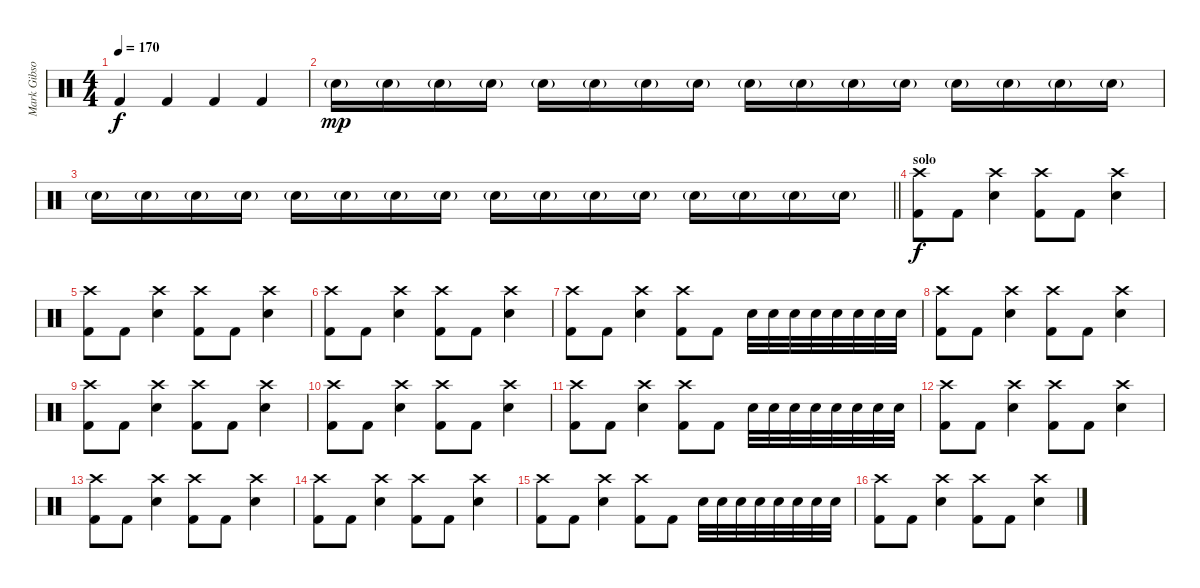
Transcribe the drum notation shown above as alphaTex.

\track ("Mark Gibson" "Mark Gibso") {instrument percussion}
\staff {score}
\articulation defaults
\ts (4 4)
\tempo 170
\clef neutral
\ks c "Kick (hit) 2".4{dy f} "Kick (hit) 2".4 "Kick (hit) 2".4 "Kick (hit) 2".4
|
"Electric Snare (hit)"{g}.16{dy mp} "Electric Snare (hit)"{g}.16 "Electric Snare (hit)"{g}.16 "Electric Snare (hit)"{g}.16 "Electric Snare (hit)"{g}.16 "Electric Snare (hit)"{g}.16 "Electric Snare (hit)"{g}.16 "Electric Snare (hit)"{g}.16 "Electric Snare (hit)"{g}.16 "Electric Snare (hit)"{g}.16 "Electric Snare (hit)"{g}.16 "Electric Snare (hit)"{g}.16 "Electric Snare (hit)"{g}.16 "Electric Snare (hit)"{g}.16 "Electric Snare (hit)"{g}.16 "Electric Snare (hit)"{g}.16 |
\barLineRight lightlight "Electric Snare (hit)"{g}.16 "Electric Snare (hit)"{g}.16 "Electric Snare (hit)"{g}.16 "Electric Snare (hit)"{g}.16 "Electric Snare (hit)"{g}.16 "Electric Snare (hit)"{g}.16 "Electric Snare (hit)"{g}.16 "Electric Snare (hit)"{g}.16 "Electric Snare (hit)"{g}.16 "Electric Snare (hit)"{g}.16 "Electric Snare (hit)"{g}.16 "Electric Snare (hit)"{g}.16 "Electric Snare (hit)"{g}.16 "Electric Snare (hit)"{g}.16 "Electric Snare (hit)"{g}.16 "Electric Snare (hit)"{g}.16
|
\section ("" "solo")
("Crash high (hit)" "Kick (hit) 2").8{dy f} "Kick (hit) 2".8 ("Crash high (hit)" "Electric Snare (hit)").4 ("Crash high (hit)" "Kick (hit) 2").8 "Kick (hit) 2".8 ("Crash high (hit)" "Electric Snare (hit)").4 |
("Crash high (hit)" "Kick (hit) 2").8 "Kick (hit) 2".8 ("Crash high (hit)" "Electric Snare (hit)").4 ("Crash high (hit)" "Kick (hit) 2").8 "Kick (hit) 2".8 ("Crash high (hit)" "Electric Snare (hit)").4 |
("Crash high (hit)" "Kick (hit) 2").8 "Kick (hit) 2".8 ("Crash high (hit)" "Electric Snare (hit)").4 ("Crash high (hit)" "Kick (hit) 2").8 "Kick (hit) 2".8 ("Crash high (hit)" "Electric Snare (hit)").4 |
("Crash high (hit)" "Kick (hit) 2").8 "Kick (hit) 2".8 ("Crash high (hit)" "Electric Snare (hit)").4 ("Crash high (hit)" "Kick (hit) 2").8 "Kick (hit) 2".8 "Electric Snare (hit)".32 "Electric Snare (hit)".32 "Electric Snare (hit)".32 "Electric Snare (hit)".32 "Electric Snare (hit)".32 "Electric Snare (hit)".32 "Electric Snare (hit)".32 "Electric Snare (hit)".32 |
("Crash high (hit)" "Kick (hit) 2").8 "Kick (hit) 2".8 ("Crash high (hit)" "Electric Snare (hit)").4 ("Crash high (hit)" "Kick (hit) 2").8 "Kick (hit) 2".8 ("Crash high (hit)" "Electric Snare (hit)").4 |
("Crash high (hit)" "Kick (hit) 2").8 "Kick (hit) 2".8 ("Crash high (hit)" "Electric Snare (hit)").4 ("Crash high (hit)" "Kick (hit) 2").8 "Kick (hit) 2".8 ("Crash high (hit)" "Electric Snare (hit)").4 |
("Crash high (hit)" "Kick (hit) 2").8 "Kick (hit) 2".8 ("Crash high (hit)" "Electric Snare (hit)").4 ("Crash high (hit)" "Kick (hit) 2").8 "Kick (hit) 2".8 ("Crash high (hit)" "Electric Snare (hit)").4 |
("Crash high (hit)" "Kick (hit) 2").8 "Kick (hit) 2".8 ("Crash high (hit)" "Electric Snare (hit)").4 ("Crash high (hit)" "Kick (hit) 2").8 "Kick (hit) 2".8 "Electric Snare (hit)".32 "Electric Snare (hit)".32 "Electric Snare (hit)".32 "Electric Snare (hit)".32 "Electric Snare (hit)".32 "Electric Snare (hit)".32 "Electric Snare (hit)".32 "Electric Snare (hit)".32 |
("Crash high (hit)" "Kick (hit) 2").8 "Kick (hit) 2".8 ("Crash high (hit)" "Electric Snare (hit)").4 ("Crash high (hit)" "Kick (hit) 2").8 "Kick (hit) 2".8 ("Crash high (hit)" "Electric Snare (hit)").4 |
("Crash high (hit)" "Kick (hit) 2").8 "Kick (hit) 2".8 ("Crash high (hit)" "Electric Snare (hit)").4 ("Crash high (hit)" "Kick (hit) 2").8 "Kick (hit) 2".8 ("Crash high (hit)" "Electric Snare (hit)").4 |
("Crash high (hit)" "Kick (hit) 2").8 "Kick (hit) 2".8 ("Crash high (hit)" "Electric Snare (hit)").4 ("Crash high (hit)" "Kick (hit) 2").8 "Kick (hit) 2".8 ("Crash high (hit)" "Electric Snare (hit)").4 |
("Crash high (hit)" "Kick (hit) 2").8 "Kick (hit) 2".8 ("Crash high (hit)" "Electric Snare (hit)").4 ("Crash high (hit)" "Kick (hit) 2").8 "Kick (hit) 2".8 "Electric Snare (hit)".32 "Electric Snare (hit)".32 "Electric Snare (hit)".32 "Electric Snare (hit)".32 "Electric Snare (hit)".32 "Electric Snare (hit)".32 "Electric Snare (hit)".32 "Electric Snare (hit)".32 |
("Crash high (hit)" "Kick (hit) 2").8 "Kick (hit) 2".8 ("Crash high (hit)" "Electric Snare (hit)").4 ("Crash high (hit)" "Kick (hit) 2").8 "Kick (hit) 2".8 ("Crash high (hit)" "Electric Snare (hit)").4
